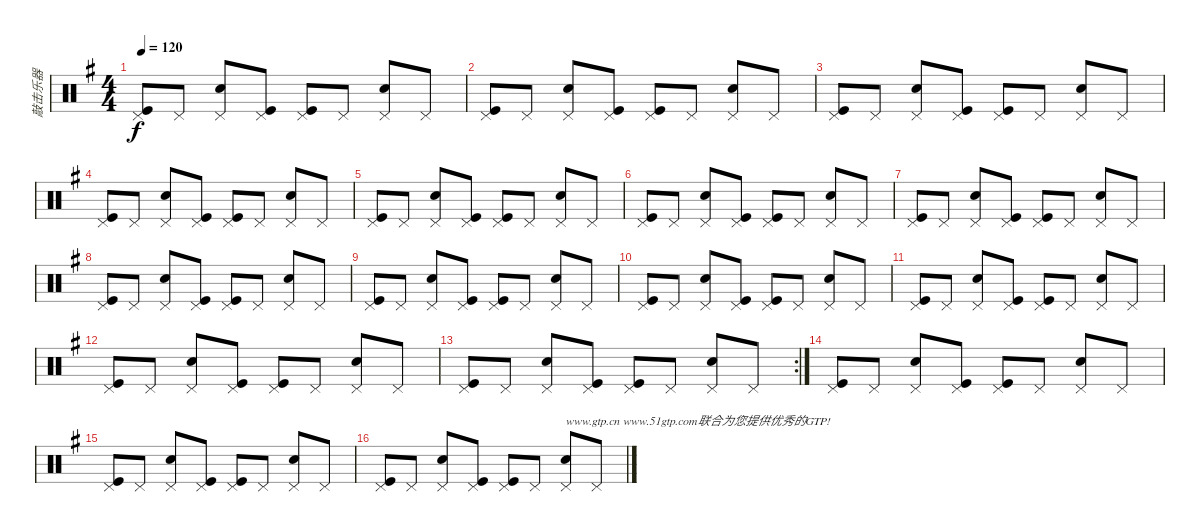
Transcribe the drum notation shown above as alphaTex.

\track ("敲击乐器" "敲击乐器") {instrument percussion}
\staff {score}
\articulation defaults
\ts (4 4)
\tempo 120
\clef neutral
\ks g
("Kick (hit)" "Pedal Hi-Hat (hit)").8{dy f} "Pedal Hi-Hat (hit)".8 ("Snare (hit) 2" "Pedal Hi-Hat (hit)").8 ("Kick (hit)" "Pedal Hi-Hat (hit)").8 ("Kick (hit)" "Pedal Hi-Hat (hit)").8 "Pedal Hi-Hat (hit)".8 ("Snare (hit) 2" "Pedal Hi-Hat (hit)").8 "Pedal Hi-Hat (hit)".8 |
("Kick (hit)" "Pedal Hi-Hat (hit)").8 "Pedal Hi-Hat (hit)".8 ("Snare (hit) 2" "Pedal Hi-Hat (hit)").8 ("Kick (hit)" "Pedal Hi-Hat (hit)").8 ("Kick (hit)" "Pedal Hi-Hat (hit)").8 "Pedal Hi-Hat (hit)".8 ("Snare (hit) 2" "Pedal Hi-Hat (hit)").8 "Pedal Hi-Hat (hit)".8 |
("Kick (hit)" "Pedal Hi-Hat (hit)").8 "Pedal Hi-Hat (hit)".8 ("Snare (hit) 2" "Pedal Hi-Hat (hit)").8 ("Kick (hit)" "Pedal Hi-Hat (hit)").8 ("Kick (hit)" "Pedal Hi-Hat (hit)").8 "Pedal Hi-Hat (hit)".8 ("Snare (hit) 2" "Pedal Hi-Hat (hit)").8 "Pedal Hi-Hat (hit)".8 |
("Kick (hit)" "Pedal Hi-Hat (hit)").8 "Pedal Hi-Hat (hit)".8 ("Snare (hit) 2" "Pedal Hi-Hat (hit)").8 ("Kick (hit)" "Pedal Hi-Hat (hit)").8 ("Kick (hit)" "Pedal Hi-Hat (hit)").8 "Pedal Hi-Hat (hit)".8 ("Snare (hit) 2" "Pedal Hi-Hat (hit)").8 "Pedal Hi-Hat (hit)".8 |
("Kick (hit)" "Pedal Hi-Hat (hit)").8 "Pedal Hi-Hat (hit)".8 ("Snare (hit) 2" "Pedal Hi-Hat (hit)").8 ("Kick (hit)" "Pedal Hi-Hat (hit)").8 ("Kick (hit)" "Pedal Hi-Hat (hit)").8 "Pedal Hi-Hat (hit)".8 ("Snare (hit) 2" "Pedal Hi-Hat (hit)").8 "Pedal Hi-Hat (hit)".8 |
("Kick (hit)" "Pedal Hi-Hat (hit)").8 "Pedal Hi-Hat (hit)".8 ("Snare (hit) 2" "Pedal Hi-Hat (hit)").8 ("Kick (hit)" "Pedal Hi-Hat (hit)").8 ("Kick (hit)" "Pedal Hi-Hat (hit)").8 "Pedal Hi-Hat (hit)".8 ("Snare (hit) 2" "Pedal Hi-Hat (hit)").8 "Pedal Hi-Hat (hit)".8 |
("Kick (hit)" "Pedal Hi-Hat (hit)").8 "Pedal Hi-Hat (hit)".8 ("Snare (hit) 2" "Pedal Hi-Hat (hit)").8 ("Kick (hit)" "Pedal Hi-Hat (hit)").8 ("Kick (hit)" "Pedal Hi-Hat (hit)").8 "Pedal Hi-Hat (hit)".8 ("Snare (hit) 2" "Pedal Hi-Hat (hit)").8 "Pedal Hi-Hat (hit)".8 |
("Kick (hit)" "Pedal Hi-Hat (hit)").8 "Pedal Hi-Hat (hit)".8 ("Snare (hit) 2" "Pedal Hi-Hat (hit)").8 ("Kick (hit)" "Pedal Hi-Hat (hit)").8 ("Kick (hit)" "Pedal Hi-Hat (hit)").8 "Pedal Hi-Hat (hit)".8 ("Snare (hit) 2" "Pedal Hi-Hat (hit)").8 "Pedal Hi-Hat (hit)".8 |
("Kick (hit)" "Pedal Hi-Hat (hit)").8 "Pedal Hi-Hat (hit)".8 ("Snare (hit) 2" "Pedal Hi-Hat (hit)").8 ("Kick (hit)" "Pedal Hi-Hat (hit)").8 ("Kick (hit)" "Pedal Hi-Hat (hit)").8 "Pedal Hi-Hat (hit)".8 ("Snare (hit) 2" "Pedal Hi-Hat (hit)").8 "Pedal Hi-Hat (hit)".8 |
("Kick (hit)" "Pedal Hi-Hat (hit)").8 "Pedal Hi-Hat (hit)".8 ("Snare (hit) 2" "Pedal Hi-Hat (hit)").8 ("Kick (hit)" "Pedal Hi-Hat (hit)").8 ("Kick (hit)" "Pedal Hi-Hat (hit)").8 "Pedal Hi-Hat (hit)".8 ("Snare (hit) 2" "Pedal Hi-Hat (hit)").8 "Pedal Hi-Hat (hit)".8 |
("Kick (hit)" "Pedal Hi-Hat (hit)").8 "Pedal Hi-Hat (hit)".8 ("Snare (hit) 2" "Pedal Hi-Hat (hit)").8 ("Kick (hit)" "Pedal Hi-Hat (hit)").8 ("Kick (hit)" "Pedal Hi-Hat (hit)").8 "Pedal Hi-Hat (hit)".8 ("Snare (hit) 2" "Pedal Hi-Hat (hit)").8 "Pedal Hi-Hat (hit)".8 |
("Kick (hit)" "Pedal Hi-Hat (hit)").8 "Pedal Hi-Hat (hit)".8 ("Snare (hit) 2" "Pedal Hi-Hat (hit)").8 ("Kick (hit)" "Pedal Hi-Hat (hit)").8 ("Kick (hit)" "Pedal Hi-Hat (hit)").8 "Pedal Hi-Hat (hit)".8 ("Snare (hit) 2" "Pedal Hi-Hat (hit)").8 "Pedal Hi-Hat (hit)".8 |
\rc 2
("Kick (hit)" "Pedal Hi-Hat (hit)").8 "Pedal Hi-Hat (hit)".8 ("Snare (hit) 2" "Pedal Hi-Hat (hit)").8 ("Kick (hit)" "Pedal Hi-Hat (hit)").8 ("Kick (hit)" "Pedal Hi-Hat (hit)").8 "Pedal Hi-Hat (hit)".8 ("Snare (hit) 2" "Pedal Hi-Hat (hit)").8 "Pedal Hi-Hat (hit)".8 |
("Kick (hit)" "Pedal Hi-Hat (hit)").8 "Pedal Hi-Hat (hit)".8 ("Snare (hit) 2" "Pedal Hi-Hat (hit)").8 ("Kick (hit)" "Pedal Hi-Hat (hit)").8 ("Kick (hit)" "Pedal Hi-Hat (hit)").8 "Pedal Hi-Hat (hit)".8 ("Snare (hit) 2" "Pedal Hi-Hat (hit)").8 "Pedal Hi-Hat (hit)".8 |
("Kick (hit)" "Pedal Hi-Hat (hit)").8 "Pedal Hi-Hat (hit)".8 ("Snare (hit) 2" "Pedal Hi-Hat (hit)").8 ("Kick (hit)" "Pedal Hi-Hat (hit)").8 ("Kick (hit)" "Pedal Hi-Hat (hit)").8 "Pedal Hi-Hat (hit)".8 ("Snare (hit) 2" "Pedal Hi-Hat (hit)").8 "Pedal Hi-Hat (hit)".8 |
("Kick (hit)" "Pedal Hi-Hat (hit)").8 "Pedal Hi-Hat (hit)".8 ("Snare (hit) 2" "Pedal Hi-Hat (hit)").8 ("Kick (hit)" "Pedal Hi-Hat (hit)").8 ("Kick (hit)" "Pedal Hi-Hat (hit)").8 "Pedal Hi-Hat (hit)".8 ("Snare (hit) 2" "Pedal Hi-Hat (hit)").8{txt "www.gtp.cn www.51gtp.com联合为您提供优秀的GTP!"} "Pedal Hi-Hat (hit)".8
